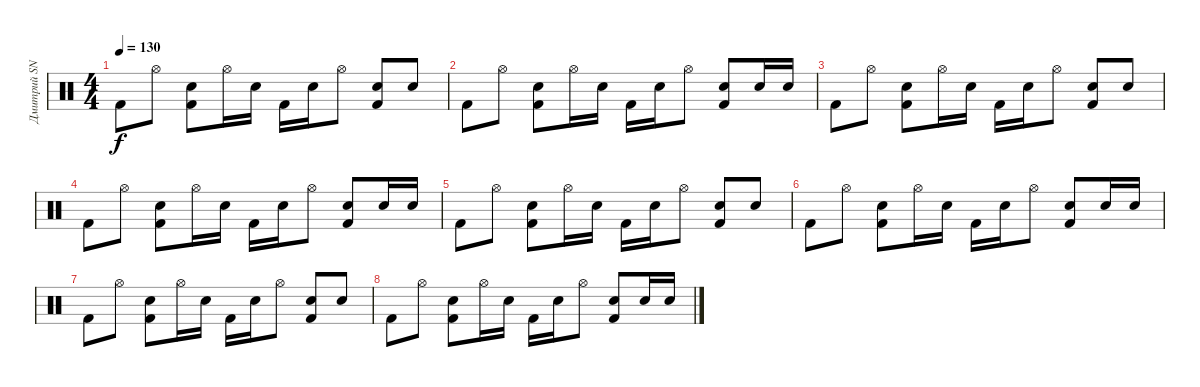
\track ("Дмитрий SNAKE Хакимов (ударные)" "Дмитрий SN") {instrument percussion}
\staff {score}
\articulation defaults
\ts (4 4)
\tempo 130
\clef neutral
\ks c "Kick (hit) 2".8{dy f} "Hi-Hat (open)".8
("Snare (hit) 2" "Kick (hit) 2").8 "Hi-Hat (open)".16 "Electric Snare (hit)".16 "Kick (hit) 2".16 "Electric Snare (hit)".16 "Hi-Hat (open)".8 ("Snare (hit) 2" "Kick (hit) 2").8 "Electric Snare (hit)".8 |
"Kick (hit) 2".8 "Hi-Hat (open)".8 ("Snare (hit) 2" "Kick (hit) 2").8 "Hi-Hat (open)".16 "Electric Snare (hit)".16 "Kick (hit) 2".16 "Electric Snare (hit)".16 "Hi-Hat (open)".8 ("Snare (hit) 2" "Kick (hit) 2").8 "Electric Snare (hit)".16 "Electric Snare (hit)".16 |
"Kick (hit) 2".8 "Hi-Hat (open)".8 ("Snare (hit) 2" "Kick (hit) 2").8 "Hi-Hat (open)".16 "Electric Snare (hit)".16 "Kick (hit) 2".16 "Electric Snare (hit)".16 "Hi-Hat (open)".8 ("Snare (hit) 2" "Kick (hit) 2").8 "Electric Snare (hit)".8 |
"Kick (hit) 2".8 "Hi-Hat (open)".8 ("Snare (hit) 2" "Kick (hit) 2").8 "Hi-Hat (open)".16 "Electric Snare (hit)".16 "Kick (hit) 2".16 "Electric Snare (hit)".16 "Hi-Hat (open)".8 ("Snare (hit) 2" "Kick (hit) 2").8 "Electric Snare (hit)".16 "Electric Snare (hit)".16 |
"Kick (hit) 2".8 "Hi-Hat (open)".8 ("Snare (hit) 2" "Kick (hit) 2").8 "Hi-Hat (open)".16 "Electric Snare (hit)".16 "Kick (hit) 2".16 "Electric Snare (hit)".16 "Hi-Hat (open)".8 ("Snare (hit) 2" "Kick (hit) 2").8 "Electric Snare (hit)".8 |
"Kick (hit) 2".8 "Hi-Hat (open)".8 ("Snare (hit) 2" "Kick (hit) 2").8 "Hi-Hat (open)".16 "Electric Snare (hit)".16 "Kick (hit) 2".16 "Electric Snare (hit)".16 "Hi-Hat (open)".8 ("Snare (hit) 2" "Kick (hit) 2").8 "Electric Snare (hit)".16 "Electric Snare (hit)".16 |
"Kick (hit) 2".8 "Hi-Hat (open)".8 ("Snare (hit) 2" "Kick (hit) 2").8 "Hi-Hat (open)".16 "Electric Snare (hit)".16 "Kick (hit) 2".16 "Electric Snare (hit)".16 "Hi-Hat (open)".8 ("Snare (hit) 2" "Kick (hit) 2").8 "Electric Snare (hit)".8 |
"Kick (hit) 2".8 "Hi-Hat (open)".8 ("Snare (hit) 2" "Kick (hit) 2").8 "Hi-Hat (open)".16 "Electric Snare (hit)".16 "Kick (hit) 2".16 "Electric Snare (hit)".16 "Hi-Hat (open)".8 ("Snare (hit) 2" "Kick (hit) 2").8 "Electric Snare (hit)".16 "Electric Snare (hit)".16
